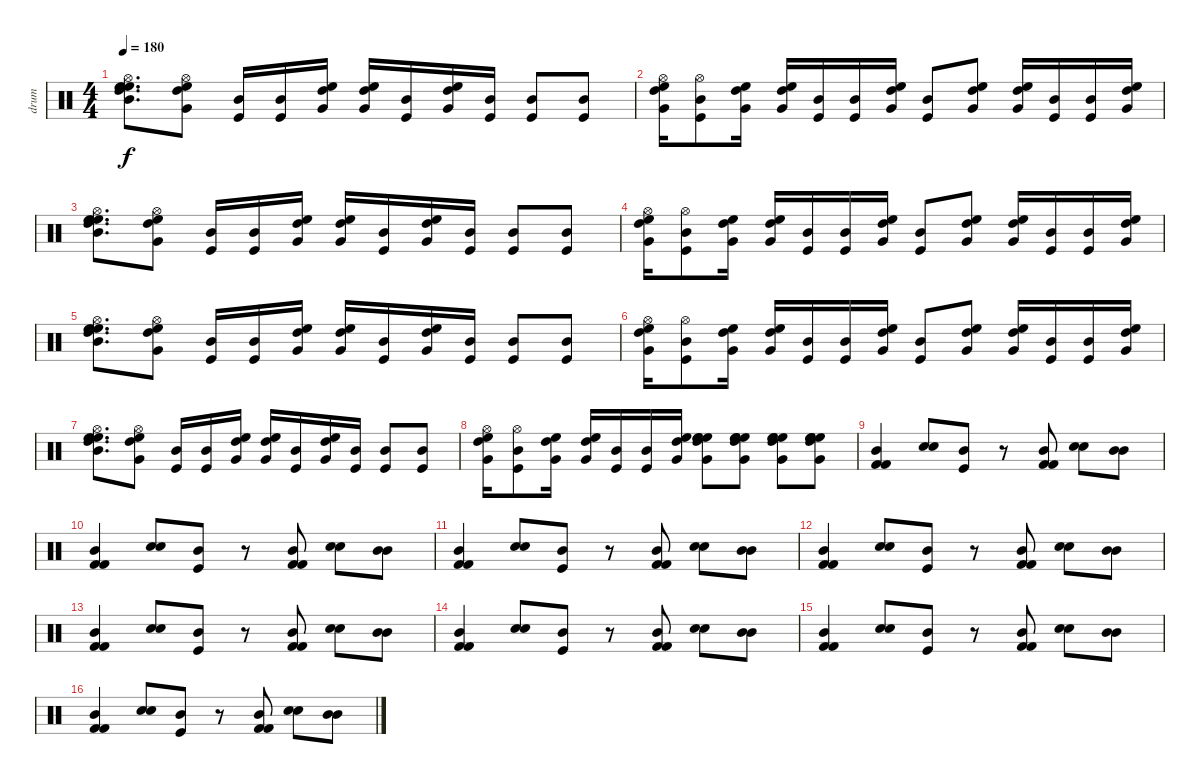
\track ("drum" "drum") {instrument percussion}
\staff {score}
\articulation defaults
\ts (4 4)
\tempo 180
\clef neutral
\ks c
("High Floor Tom (hit)" "High Tom (hit)" "Hi-Hat (open)" "Mid Tom (hit)" "High Floor Tom (hit)").8{d dy f} ("High Floor Tom (hit)" "High Tom (hit)" "Very Low Tom (hit)" "Hi-Hat (open)").8 ("Kick (hit)" "Mid Tom (hit)").16 ("Kick (hit)" "Mid Tom (hit)").16 ("High Floor Tom (hit)" "High Tom (hit)" "Very Low Tom (hit)").16 ("High Floor Tom (hit)" "High Tom (hit)" "Very Low Tom (hit)").16 ("Kick (hit)" "Mid Tom (hit)").16 ("High Floor Tom (hit)" "High Tom (hit)" "Very Low Tom (hit)").16 ("Kick (hit)" "Mid Tom (hit)").16 ("Kick (hit)" "Mid Tom (hit)").8 ("Kick (hit)" "Mid Tom (hit)").8 |
("High Floor Tom (hit)" "High Tom (hit)" "Hi-Hat (open)" "Very Low Tom (hit)").16 ("Kick (hit)" "Mid Tom (hit)" "Hi-Hat (open)").8 ("High Floor Tom (hit)" "High Tom (hit)" "Very Low Tom (hit)").16 ("High Floor Tom (hit)" "High Tom (hit)" "Very Low Tom (hit)").16 ("Kick (hit)" "Mid Tom (hit)").16 ("Kick (hit)" "Mid Tom (hit)").16 ("High Floor Tom (hit)" "High Tom (hit)" "Very Low Tom (hit)").16 ("Kick (hit)" "Mid Tom (hit)").8 ("High Floor Tom (hit)" "High Tom (hit)" "Very Low Tom (hit)").8 ("High Floor Tom (hit)" "High Tom (hit)" "Very Low Tom (hit)").16 ("Kick (hit)" "Mid Tom (hit)").16 ("Kick (hit)" "Mid Tom (hit)").16 ("High Floor Tom (hit)" "High Tom (hit)" "Very Low Tom (hit)").16 |
("High Floor Tom (hit)" "High Tom (hit)" "Hi-Hat (open)" "Mid Tom (hit)" "High Floor Tom (hit)").8{d} ("High Floor Tom (hit)" "High Tom (hit)" "Very Low Tom (hit)" "Hi-Hat (open)").8 ("Kick (hit)" "Mid Tom (hit)").16 ("Kick (hit)" "Mid Tom (hit)").16 ("High Floor Tom (hit)" "High Tom (hit)" "Very Low Tom (hit)").16 ("High Floor Tom (hit)" "High Tom (hit)" "Very Low Tom (hit)").16 ("Kick (hit)" "Mid Tom (hit)").16 ("High Floor Tom (hit)" "High Tom (hit)" "Very Low Tom (hit)").16 ("Kick (hit)" "Mid Tom (hit)").16 ("Kick (hit)" "Mid Tom (hit)").8 ("Kick (hit)" "Mid Tom (hit)").8 |
("High Floor Tom (hit)" "High Tom (hit)" "Hi-Hat (open)" "Very Low Tom (hit)").16 ("Kick (hit)" "Mid Tom (hit)" "Hi-Hat (open)").8 ("High Floor Tom (hit)" "High Tom (hit)" "Very Low Tom (hit)").16 ("High Floor Tom (hit)" "High Tom (hit)" "Very Low Tom (hit)").16 ("Kick (hit)" "Mid Tom (hit)").16 ("Kick (hit)" "Mid Tom (hit)").16 ("High Floor Tom (hit)" "High Tom (hit)" "Very Low Tom (hit)").16 ("Kick (hit)" "Mid Tom (hit)").8 ("High Floor Tom (hit)" "High Tom (hit)" "Very Low Tom (hit)").8 ("High Floor Tom (hit)" "High Tom (hit)" "Very Low Tom (hit)").16 ("Kick (hit)" "Mid Tom (hit)").16 ("Kick (hit)" "Mid Tom (hit)").16 ("High Floor Tom (hit)" "High Tom (hit)" "Very Low Tom (hit)").16 |
("High Floor Tom (hit)" "High Tom (hit)" "Hi-Hat (open)" "Mid Tom (hit)" "High Floor Tom (hit)").8{d} ("High Floor Tom (hit)" "High Tom (hit)" "Very Low Tom (hit)" "Hi-Hat (open)").8 ("Kick (hit)" "Mid Tom (hit)").16 ("Kick (hit)" "Mid Tom (hit)").16 ("High Floor Tom (hit)" "High Tom (hit)" "Very Low Tom (hit)").16 ("High Floor Tom (hit)" "High Tom (hit)" "Very Low Tom (hit)").16 ("Kick (hit)" "Mid Tom (hit)").16 ("High Floor Tom (hit)" "High Tom (hit)" "Very Low Tom (hit)").16 ("Kick (hit)" "Mid Tom (hit)").16 ("Kick (hit)" "Mid Tom (hit)").8 ("Kick (hit)" "Mid Tom (hit)").8 |
("High Floor Tom (hit)" "High Tom (hit)" "Hi-Hat (open)" "Very Low Tom (hit)").16 ("Kick (hit)" "Mid Tom (hit)" "Hi-Hat (open)").8 ("High Floor Tom (hit)" "High Tom (hit)" "Very Low Tom (hit)").16 ("High Floor Tom (hit)" "High Tom (hit)" "Very Low Tom (hit)").16 ("Kick (hit)" "Mid Tom (hit)").16 ("Kick (hit)" "Mid Tom (hit)").16 ("High Floor Tom (hit)" "High Tom (hit)" "Very Low Tom (hit)").16 ("Kick (hit)" "Mid Tom (hit)").8 ("High Floor Tom (hit)" "High Tom (hit)" "Very Low Tom (hit)").8 ("High Floor Tom (hit)" "High Tom (hit)" "Very Low Tom (hit)").16 ("Kick (hit)" "Mid Tom (hit)").16 ("Kick (hit)" "Mid Tom (hit)").16 ("High Floor Tom (hit)" "High Tom (hit)" "Very Low Tom (hit)").16 |
("High Floor Tom (hit)" "High Tom (hit)" "Hi-Hat (open)" "Mid Tom (hit)" "High Floor Tom (hit)").8{d} ("High Floor Tom (hit)" "High Tom (hit)" "Very Low Tom (hit)" "Hi-Hat (open)").8 ("Kick (hit)" "Mid Tom (hit)").16 ("Kick (hit)" "Mid Tom (hit)").16 ("High Floor Tom (hit)" "High Tom (hit)" "Very Low Tom (hit)").16 ("High Floor Tom (hit)" "High Tom (hit)" "Very Low Tom (hit)").16 ("Kick (hit)" "Mid Tom (hit)").16 ("High Floor Tom (hit)" "High Tom (hit)" "Very Low Tom (hit)").16 ("Kick (hit)" "Mid Tom (hit)").16 ("Kick (hit)" "Mid Tom (hit)").8 ("Kick (hit)" "Mid Tom (hit)").8 |
("High Floor Tom (hit)" "High Tom (hit)" "Hi-Hat (open)" "Very Low Tom (hit)").16 ("Kick (hit)" "Mid Tom (hit)" "Hi-Hat (open)").8 ("High Floor Tom (hit)" "High Tom (hit)" "Very Low Tom (hit)").16 ("High Floor Tom (hit)" "High Tom (hit)" "Very Low Tom (hit)").16 ("Kick (hit)" "Mid Tom (hit)").16 ("Kick (hit)" "Mid Tom (hit)").16 ("High Floor Tom (hit)" "High Tom (hit)" "Very Low Tom (hit)").16 ("High Floor Tom (hit)" "High Tom (hit)" "Very Low Tom (hit)" "High Floor Tom (hit)" "High Floor Tom (hit)").8 ("High Floor Tom (hit)" "High Tom (hit)" "Very Low Tom (hit)" "High Floor Tom (hit)" "High Floor Tom (hit)").8 ("High Floor Tom (hit)" "High Tom (hit)" "Very Low Tom (hit)" "High Floor Tom (hit)" "High Floor Tom (hit)").8 ("High Floor Tom (hit)" "High Tom (hit)" "Very Low Tom (hit)" "High Floor Tom (hit)" "High Floor Tom (hit)").8 |
("Kick (hit) 2" "Mid Tom (hit)" "Kick (hit) 2").4 ("Electric Snare (hit)" "Electric Snare (hit)").8 ("Kick (hit)" "Mid Tom (hit)").8 r.8 ("Mid Tom (hit)" "Kick (hit) 2" "Kick (hit) 2").8 ("Electric Snare (hit)" "Electric Snare (hit)").8 ("Mid Tom (hit)" "Mid Tom (hit)").8 |
("Kick (hit) 2" "Mid Tom (hit)" "Kick (hit) 2").4 ("Electric Snare (hit)" "Electric Snare (hit)").8 ("Kick (hit)" "Mid Tom (hit)").8 r.8 ("Mid Tom (hit)" "Kick (hit) 2" "Kick (hit) 2").8 ("Electric Snare (hit)" "Electric Snare (hit)").8 ("Mid Tom (hit)" "Mid Tom (hit)").8 |
("Kick (hit) 2" "Mid Tom (hit)" "Kick (hit) 2").4 ("Electric Snare (hit)" "Electric Snare (hit)").8 ("Kick (hit)" "Mid Tom (hit)").8 r.8 ("Mid Tom (hit)" "Kick (hit) 2" "Kick (hit) 2").8 ("Electric Snare (hit)" "Electric Snare (hit)").8 ("Mid Tom (hit)" "Mid Tom (hit)").8 |
("Kick (hit) 2" "Mid Tom (hit)" "Kick (hit) 2").4 ("Electric Snare (hit)" "Electric Snare (hit)").8 ("Kick (hit)" "Mid Tom (hit)").8 r.8 ("Mid Tom (hit)" "Kick (hit) 2" "Kick (hit) 2").8 ("Electric Snare (hit)" "Electric Snare (hit)").8 ("Mid Tom (hit)" "Mid Tom (hit)").8 |
("Kick (hit) 2" "Mid Tom (hit)" "Kick (hit) 2").4 ("Electric Snare (hit)" "Electric Snare (hit)").8 ("Kick (hit)" "Mid Tom (hit)").8 r.8 ("Mid Tom (hit)" "Kick (hit) 2" "Kick (hit) 2").8 ("Electric Snare (hit)" "Electric Snare (hit)").8 ("Mid Tom (hit)" "Mid Tom (hit)").8 |
("Kick (hit) 2" "Mid Tom (hit)" "Kick (hit) 2").4 ("Electric Snare (hit)" "Electric Snare (hit)").8 ("Kick (hit)" "Mid Tom (hit)").8 r.8 ("Mid Tom (hit)" "Kick (hit) 2" "Kick (hit) 2").8 ("Electric Snare (hit)" "Electric Snare (hit)").8 ("Mid Tom (hit)" "Mid Tom (hit)").8 |
("Kick (hit) 2" "Mid Tom (hit)" "Kick (hit) 2").4 ("Electric Snare (hit)" "Electric Snare (hit)").8 ("Kick (hit)" "Mid Tom (hit)").8 r.8 ("Mid Tom (hit)" "Kick (hit) 2" "Kick (hit) 2").8 ("Electric Snare (hit)" "Electric Snare (hit)").8 ("Mid Tom (hit)" "Mid Tom (hit)").8 |
("Kick (hit) 2" "Mid Tom (hit)" "Kick (hit) 2").4 ("Electric Snare (hit)" "Electric Snare (hit)").8 ("Kick (hit)" "Mid Tom (hit)").8 r.8 ("Mid Tom (hit)" "Kick (hit) 2" "Kick (hit) 2").8 ("Electric Snare (hit)" "Electric Snare (hit)").8 ("Mid Tom (hit)" "Mid Tom (hit)").8
